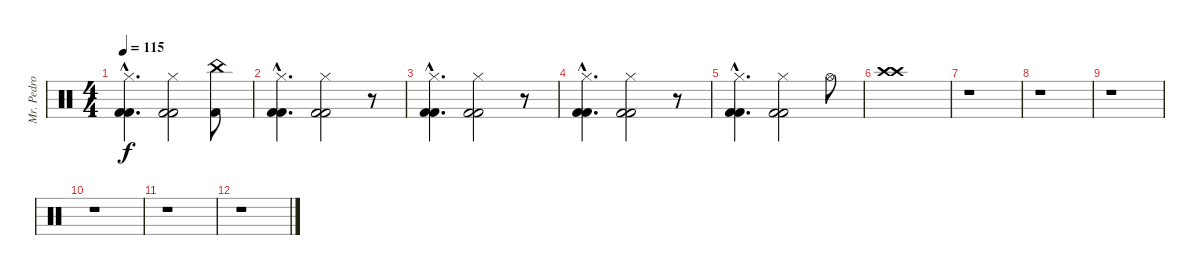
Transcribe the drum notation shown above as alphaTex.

\track ("Mr. Pedro Andreu" "Mr. Pedro ") {instrument percussion}
\staff {score}
\articulation defaults
\ts (4 4)
\tempo 115
\clef neutral
\ks c
("Kick (hit) 2"{hac} "Hi-Hat (closed)"{hac} "Kick (hit) 2"{hac}).4{d dy f} ("Kick (hit) 2" "Hi-Hat (closed)" "Kick (hit) 2").2 ("China (hit)" "Kick (hit) 2").8 |
("Kick (hit) 2"{hac} "Hi-Hat (closed)"{hac} "Kick (hit) 2"{hac}).4{d} ("Kick (hit) 2" "Hi-Hat (closed)" "Kick (hit) 2").2 r.8 |
("Kick (hit) 2"{hac} "Hi-Hat (closed)"{hac} "Kick (hit) 2"{hac}).4{d} ("Kick (hit) 2" "Hi-Hat (closed)" "Kick (hit) 2").2 r.8 |
("Kick (hit) 2"{hac} "Hi-Hat (closed)"{hac} "Kick (hit) 2"{hac}).4{d} ("Kick (hit) 2" "Hi-Hat (closed)" "Kick (hit) 2").2 r.8 |
("Kick (hit) 2"{hac} "Hi-Hat (closed)"{hac} "Kick (hit) 2"{hac}).4{d} ("Kick (hit) 2" "Hi-Hat (closed)" "Kick (hit) 2").2 "Hi-Hat (open)".8 |
("Crash high (hit)" "Crash high (hit)").1 |
r.1 |
r.1 |
r.1 |
r.1 |
r.1 |
r.1
